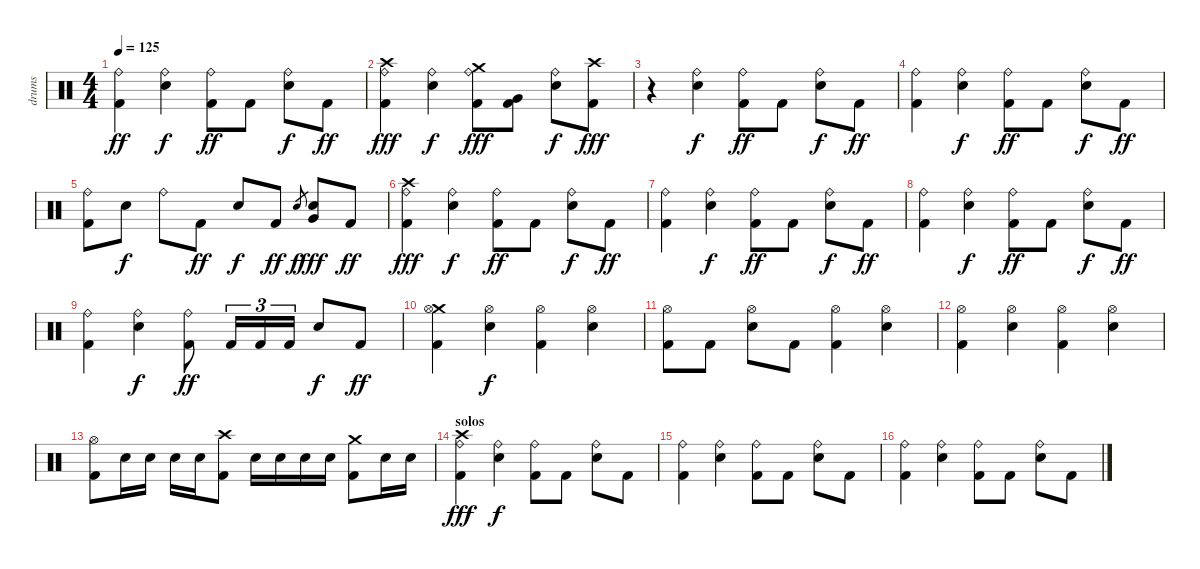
\track ("drums" "drums") {instrument percussion}
\staff {score}
\articulation defaults
\ts (4 4)
\tempo 125
\clef neutral
\ks c
("Kick (hit) 2" "Ride (bell)").4{dy ff} ("Ride (bell)" "Snare (hit) 2").4{dy f} ("Kick (hit) 2" "Ride (bell)").8{dy ff} "Kick (hit) 2".8 ("Ride (bell)" "Snare (hit) 2").8{dy f} "Kick (hit) 2".8{dy ff} |
("Kick (hit) 2" "Crash high (hit)" "Ride (bell)").4{dy fff} ("Ride (bell)" "Snare (hit) 2").4{dy f} ("Kick (hit) 2" "Crash medium (hit)" "Ride (bell)").8{dy fff} ("Kick (hit) 2" "Very Low Tom (hit)").8 ("Ride (bell)" "Snare (hit) 2").8{dy f} ("Kick (hit) 2" "Crash high (hit)").8{dy fff} |
r.4 ("Ride (bell)" "Snare (hit) 2").4{dy f} ("Kick (hit) 2" "Ride (bell)").8{dy ff} "Kick (hit) 2".8 ("Ride (bell)" "Snare (hit) 2").8{dy f} "Kick (hit) 2".8{dy ff} |
("Kick (hit) 2" "Ride (bell)").4 ("Ride (bell)" "Snare (hit) 2").4{dy f} ("Kick (hit) 2" "Ride (bell)").8{dy ff} "Kick (hit) 2".8 ("Ride (bell)" "Snare (hit) 2").8{dy f} "Kick (hit) 2".8{dy ff} |
("Kick (hit) 2" "Ride (bell)").8 "Snare (hit) 2".8{dy f} "Ride (bell)".8 "Kick (hit) 2".8{dy ff} "Snare (hit) 2".8{dy f} "Kick (hit) 2".8{dy ff} "Snare (hit) 2".8{gr dy f} ("Very Low Tom (hit)" "Snare (hit) 2").8{dy fff} "Kick (hit) 2".8{dy ff} |
("Kick (hit) 2" "Crash high (hit)" "Ride (bell)").4{dy fff} ("Ride (bell)" "Snare (hit) 2").4{dy f} ("Kick (hit) 2" "Ride (bell)").8{dy ff} "Kick (hit) 2".8 ("Ride (bell)" "Snare (hit) 2").8{dy f} "Kick (hit) 2".8{dy ff} |
("Kick (hit) 2" "Ride (bell)").4 ("Ride (bell)" "Snare (hit) 2").4{dy f} ("Kick (hit) 2" "Ride (bell)").8{dy ff} "Kick (hit) 2".8 ("Ride (bell)" "Snare (hit) 2").8{dy f} "Kick (hit) 2".8{dy ff} |
("Kick (hit) 2" "Ride (bell)").4 ("Ride (bell)" "Snare (hit) 2").4{dy f} ("Kick (hit) 2" "Ride (bell)").8{dy ff} "Kick (hit) 2".8 ("Ride (bell)" "Snare (hit) 2").8{dy f} "Kick (hit) 2".8{dy ff} |
("Kick (hit) 2" "Ride (bell)").4 ("Ride (bell)" "Snare (hit) 2").4{dy f} ("Kick (hit) 2" "Ride (bell)").8{dy ff} "Kick (hit) 2".16{tu (3 2)} "Kick (hit) 2".16{tu (3 2)} "Kick (hit) 2".16{tu (3 2)} "Snare (hit) 2".8{dy f} "Kick (hit) 2".8{dy ff} |
("Kick (hit) 2" "Crash medium (hit)" "Hi-Hat (open)").4 ("Hi-Hat (open)" "Snare (hit) 2").4{dy f} ("Kick (hit) 2" "Hi-Hat (open)").4 ("Hi-Hat (open)" "Snare (hit) 2").4 |
("Kick (hit) 2" "Hi-Hat (open)").8 "Kick (hit) 2".8 ("Hi-Hat (open)" "Snare (hit) 2").8 "Kick (hit) 2".8 ("Kick (hit) 2" "Hi-Hat (open)").4 ("Hi-Hat (open)" "Snare (hit) 2").4 |
("Kick (hit) 2" "Hi-Hat (open)").4 ("Hi-Hat (open)" "Snare (hit) 2").4 ("Kick (hit) 2" "Hi-Hat (open)").4 ("Hi-Hat (open)" "Snare (hit) 2").4 |
("Kick (hit) 2" "Hi-Hat (open)").8 "Snare (hit) 2".16 "Snare (hit) 2".16 "Snare (hit) 2".16 "Snare (hit) 2".16 ("Kick (hit) 2" "Crash high (hit)").8 "Snare (hit) 2".16 "Snare (hit) 2".16 "Snare (hit) 2".16 "Snare (hit) 2".16 ("Kick (hit) 2" "Crash medium (hit)").8 "Snare (hit) 2".16 "Snare (hit) 2".16 |
\section ("" "solos")
("Kick (hit) 2" "Crash high (hit)" "Ride (bell)").4{dy fff} ("Ride (bell)" "Snare (hit) 2").4{dy f} ("Kick (hit) 2" "Ride (bell)").8 "Kick (hit) 2".8 ("Ride (bell)" "Snare (hit) 2").8 "Kick (hit) 2".8 |
("Kick (hit) 2" "Ride (bell)").4 ("Ride (bell)" "Snare (hit) 2").4 ("Kick (hit) 2" "Ride (bell)").8 "Kick (hit) 2".8 ("Ride (bell)" "Snare (hit) 2").8 "Kick (hit) 2".8 |
("Kick (hit) 2" "Ride (bell)").4 ("Ride (bell)" "Snare (hit) 2").4 ("Kick (hit) 2" "Ride (bell)").8 "Kick (hit) 2".8 ("Ride (bell)" "Snare (hit) 2").8 "Kick (hit) 2".8
